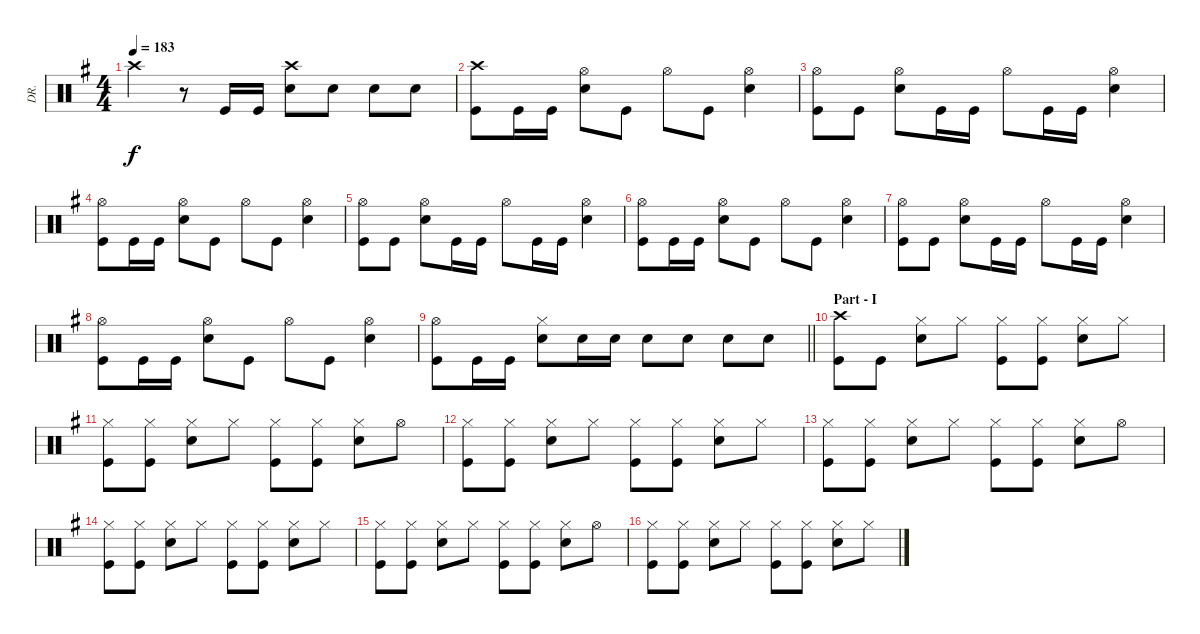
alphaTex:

\track ("DR." "DR.") {instrument percussion}
\staff {score}
\articulation defaults
\ts (4 4)
\tempo 183
\clef neutral
\ks g "Crash high (hit)"{t}.4{dy f}
r.8 "Kick (hit)".16 "Kick (hit)".16 ("Crash high (hit)" "Snare (hit) 2").8 "Snare (hit) 2".8 "Snare (hit) 2".8 "Snare (hit) 2".8 |
("Crash high (hit)" "Kick (hit)").8 "Kick (hit)".16 "Kick (hit)".16 ("Hi-Hat (open)" "Snare (hit) 2").8 "Kick (hit)".8 "Hi-Hat (open)".8 "Kick (hit)".8 ("Hi-Hat (open)" "Snare (hit) 2").4 |
("Hi-Hat (open)" "Kick (hit)").8 "Kick (hit)".8 ("Hi-Hat (open)" "Snare (hit) 2").8 "Kick (hit)".16 "Kick (hit)".16 "Hi-Hat (open)".8 "Kick (hit)".16 "Kick (hit)".16 ("Hi-Hat (open)" "Snare (hit) 2").4 |
("Hi-Hat (open)" "Kick (hit)").8 "Kick (hit)".16 "Kick (hit)".16 ("Hi-Hat (open)" "Snare (hit) 2").8 "Kick (hit)".8 "Hi-Hat (open)".8 "Kick (hit)".8 ("Hi-Hat (open)" "Snare (hit) 2").4 |
("Hi-Hat (open)" "Kick (hit)").8 "Kick (hit)".8 ("Hi-Hat (open)" "Snare (hit) 2").8 "Kick (hit)".16 "Kick (hit)".16 "Hi-Hat (open)".8 "Kick (hit)".16 "Kick (hit)".16 ("Hi-Hat (open)" "Snare (hit) 2").4 |
("Hi-Hat (open)" "Kick (hit)").8 "Kick (hit)".16 "Kick (hit)".16 ("Hi-Hat (open)" "Snare (hit) 2").8 "Kick (hit)".8 "Hi-Hat (open)".8 "Kick (hit)".8 ("Hi-Hat (open)" "Snare (hit) 2").4 |
("Hi-Hat (open)" "Kick (hit)").8 "Kick (hit)".8 ("Hi-Hat (open)" "Snare (hit) 2").8 "Kick (hit)".16 "Kick (hit)".16 "Hi-Hat (open)".8 "Kick (hit)".16 "Kick (hit)".16 ("Hi-Hat (open)" "Snare (hit) 2").4 |
("Hi-Hat (open)" "Kick (hit)").8 "Kick (hit)".16 "Kick (hit)".16 ("Hi-Hat (open)" "Snare (hit) 2").8 "Kick (hit)".8 "Hi-Hat (open)".8 "Kick (hit)".8 ("Hi-Hat (open)" "Snare (hit) 2").4 |
\barLineRight lightlight
("Hi-Hat (open)" "Kick (hit)").8 "Kick (hit)".16 "Kick (hit)".16 ("Hi-Hat (closed)" "Snare (hit) 2").8 "Snare (hit) 2".16 "Snare (hit) 2".16 "Snare (hit) 2".8 "Snare (hit) 2".8 "Snare (hit) 2".8 "Snare (hit) 2".8 |
\section ("" "Part - I")
("Crash high (hit)" "Kick (hit)").8 "Kick (hit)".8 ("Hi-Hat (closed)" "Snare (hit) 2").8 "Hi-Hat (closed)".8 ("Hi-Hat (closed)" "Kick (hit)").8 ("Hi-Hat (closed)" "Kick (hit)").8 ("Hi-Hat (closed)" "Snare (hit) 2").8 "Hi-Hat (closed)".8 |
("Hi-Hat (closed)" "Kick (hit)").8 ("Hi-Hat (closed)" "Kick (hit)").8 ("Hi-Hat (closed)" "Snare (hit) 2").8 "Hi-Hat (closed)".8 ("Hi-Hat (closed)" "Kick (hit)").8 ("Hi-Hat (closed)" "Kick (hit)").8 ("Hi-Hat (closed)" "Snare (hit) 2").8 "Hi-Hat (open)".8 |
("Hi-Hat (closed)" "Kick (hit)").8 ("Hi-Hat (closed)" "Kick (hit)").8 ("Hi-Hat (closed)" "Snare (hit) 2").8 "Hi-Hat (closed)".8 ("Hi-Hat (closed)" "Kick (hit)").8 ("Hi-Hat (closed)" "Kick (hit)").8 ("Hi-Hat (closed)" "Snare (hit) 2").8 "Hi-Hat (closed)".8 |
("Hi-Hat (closed)" "Kick (hit)").8 ("Hi-Hat (closed)" "Kick (hit)").8 ("Hi-Hat (closed)" "Snare (hit) 2").8 "Hi-Hat (closed)".8 ("Hi-Hat (closed)" "Kick (hit)").8 ("Hi-Hat (closed)" "Kick (hit)").8 ("Hi-Hat (closed)" "Snare (hit) 2").8 "Hi-Hat (open)".8 |
("Hi-Hat (closed)" "Kick (hit)").8 ("Hi-Hat (closed)" "Kick (hit)").8 ("Hi-Hat (closed)" "Snare (hit) 2").8 "Hi-Hat (closed)".8 ("Hi-Hat (closed)" "Kick (hit)").8 ("Hi-Hat (closed)" "Kick (hit)").8 ("Hi-Hat (closed)" "Snare (hit) 2").8 "Hi-Hat (closed)".8 |
("Hi-Hat (closed)" "Kick (hit)").8 ("Hi-Hat (closed)" "Kick (hit)").8 ("Hi-Hat (closed)" "Snare (hit) 2").8 "Hi-Hat (closed)".8 ("Hi-Hat (closed)" "Kick (hit)").8 ("Hi-Hat (closed)" "Kick (hit)").8 ("Hi-Hat (closed)" "Snare (hit) 2").8 "Hi-Hat (open)".8 |
("Hi-Hat (closed)" "Kick (hit)").8 ("Hi-Hat (closed)" "Kick (hit)").8 ("Hi-Hat (closed)" "Snare (hit) 2").8 "Hi-Hat (closed)".8 ("Hi-Hat (closed)" "Kick (hit)").8 ("Hi-Hat (closed)" "Kick (hit)").8 ("Hi-Hat (closed)" "Snare (hit) 2").8 "Hi-Hat (closed)".8
